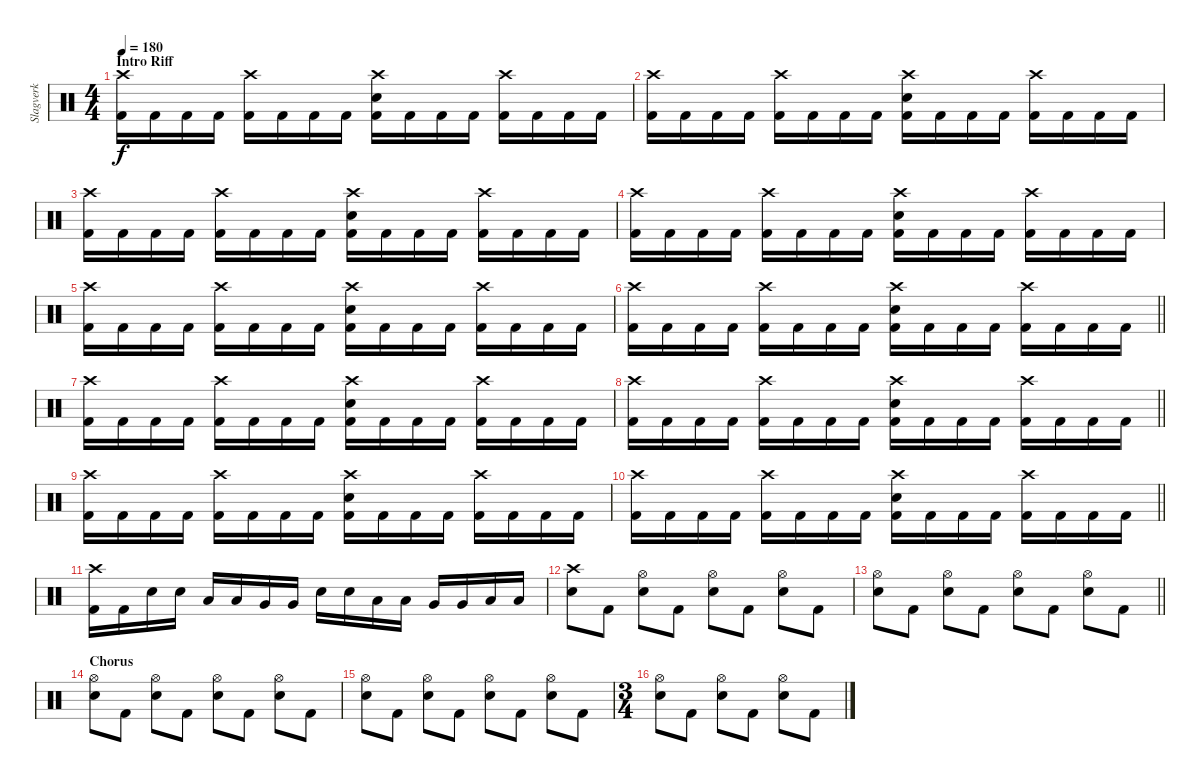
\track ("Slagverk" "Slagverk") {instrument percussion}
\staff {score}
\articulation defaults
\ts (4 4)
\section ("" "Intro Riff")
\tempo 180
\clef neutral
\ks c
("Crash high (hit)" "Kick (hit) 2").16{dy f} "Kick (hit) 2".16 "Kick (hit) 2".16 "Kick (hit) 2".16 ("Crash high (hit)" "Kick (hit) 2").16 "Kick (hit) 2".16 "Kick (hit) 2".16 "Kick (hit) 2".16 ("Crash high (hit)" "Electric Snare (hit)" "Kick (hit) 2").16 "Kick (hit) 2".16 "Kick (hit) 2".16 "Kick (hit) 2".16 ("Crash high (hit)" "Kick (hit) 2").16 "Kick (hit) 2".16 "Kick (hit) 2".16 "Kick (hit) 2".16 |
("Crash high (hit)" "Kick (hit) 2").16 "Kick (hit) 2".16 "Kick (hit) 2".16 "Kick (hit) 2".16 ("Crash high (hit)" "Kick (hit) 2").16 "Kick (hit) 2".16 "Kick (hit) 2".16 "Kick (hit) 2".16 ("Crash high (hit)" "Electric Snare (hit)" "Kick (hit) 2").16 "Kick (hit) 2".16 "Kick (hit) 2".16 "Kick (hit) 2".16 ("Crash high (hit)" "Kick (hit) 2").16 "Kick (hit) 2".16 "Kick (hit) 2".16 "Kick (hit) 2".16 |
("Crash high (hit)" "Kick (hit) 2").16 "Kick (hit) 2".16 "Kick (hit) 2".16 "Kick (hit) 2".16 ("Crash high (hit)" "Kick (hit) 2").16 "Kick (hit) 2".16 "Kick (hit) 2".16 "Kick (hit) 2".16 ("Crash high (hit)" "Electric Snare (hit)" "Kick (hit) 2").16 "Kick (hit) 2".16 "Kick (hit) 2".16 "Kick (hit) 2".16 ("Crash high (hit)" "Kick (hit) 2").16 "Kick (hit) 2".16 "Kick (hit) 2".16 "Kick (hit) 2".16 |
("Crash high (hit)" "Kick (hit) 2").16 "Kick (hit) 2".16 "Kick (hit) 2".16 "Kick (hit) 2".16 ("Crash high (hit)" "Kick (hit) 2").16 "Kick (hit) 2".16 "Kick (hit) 2".16 "Kick (hit) 2".16 ("Crash high (hit)" "Electric Snare (hit)" "Kick (hit) 2").16 "Kick (hit) 2".16 "Kick (hit) 2".16 "Kick (hit) 2".16 ("Crash high (hit)" "Kick (hit) 2").16 "Kick (hit) 2".16 "Kick (hit) 2".16 "Kick (hit) 2".16 |
("Crash high (hit)" "Kick (hit) 2").16 "Kick (hit) 2".16 "Kick (hit) 2".16 "Kick (hit) 2".16 ("Crash high (hit)" "Kick (hit) 2").16 "Kick (hit) 2".16 "Kick (hit) 2".16 "Kick (hit) 2".16 ("Crash high (hit)" "Electric Snare (hit)" "Kick (hit) 2").16 "Kick (hit) 2".16 "Kick (hit) 2".16 "Kick (hit) 2".16 ("Crash high (hit)" "Kick (hit) 2").16 "Kick (hit) 2".16 "Kick (hit) 2".16 "Kick (hit) 2".16 |
\barLineRight lightlight
("Crash high (hit)" "Kick (hit) 2").16 "Kick (hit) 2".16 "Kick (hit) 2".16 "Kick (hit) 2".16 ("Crash high (hit)" "Kick (hit) 2").16 "Kick (hit) 2".16 "Kick (hit) 2".16 "Kick (hit) 2".16 ("Crash high (hit)" "Electric Snare (hit)" "Kick (hit) 2").16 "Kick (hit) 2".16 "Kick (hit) 2".16 "Kick (hit) 2".16 ("Crash high (hit)" "Kick (hit) 2").16 "Kick (hit) 2".16 "Kick (hit) 2".16 "Kick (hit) 2".16 |
("Crash high (hit)" "Kick (hit) 2").16 "Kick (hit) 2".16 "Kick (hit) 2".16 "Kick (hit) 2".16 ("Crash high (hit)" "Kick (hit) 2").16 "Kick (hit) 2".16 "Kick (hit) 2".16 "Kick (hit) 2".16 ("Crash high (hit)" "Electric Snare (hit)" "Kick (hit) 2").16 "Kick (hit) 2".16 "Kick (hit) 2".16 "Kick (hit) 2".16 ("Crash high (hit)" "Kick (hit) 2").16 "Kick (hit) 2".16 "Kick (hit) 2".16 "Kick (hit) 2".16 |
\barLineRight lightlight
("Crash high (hit)" "Kick (hit) 2").16 "Kick (hit) 2".16 "Kick (hit) 2".16 "Kick (hit) 2".16 ("Crash high (hit)" "Kick (hit) 2").16 "Kick (hit) 2".16 "Kick (hit) 2".16 "Kick (hit) 2".16 ("Crash high (hit)" "Electric Snare (hit)" "Kick (hit) 2").16 "Kick (hit) 2".16 "Kick (hit) 2".16 "Kick (hit) 2".16 ("Crash high (hit)" "Kick (hit) 2").16 "Kick (hit) 2".16 "Kick (hit) 2".16 "Kick (hit) 2".16 |
("Crash high (hit)" "Kick (hit) 2").16 "Kick (hit) 2".16 "Kick (hit) 2".16 "Kick (hit) 2".16 ("Crash high (hit)" "Kick (hit) 2").16 "Kick (hit) 2".16 "Kick (hit) 2".16 "Kick (hit) 2".16 ("Crash high (hit)" "Electric Snare (hit)" "Kick (hit) 2").16 "Kick (hit) 2".16 "Kick (hit) 2".16 "Kick (hit) 2".16 ("Crash high (hit)" "Kick (hit) 2").16 "Kick (hit) 2".16 "Kick (hit) 2".16 "Kick (hit) 2".16 |
\barLineRight lightlight
("Crash high (hit)" "Kick (hit) 2").16 "Kick (hit) 2".16 "Kick (hit) 2".16 "Kick (hit) 2".16 ("Crash high (hit)" "Kick (hit) 2").16 "Kick (hit) 2".16 "Kick (hit) 2".16 "Kick (hit) 2".16 ("Crash high (hit)" "Electric Snare (hit)" "Kick (hit) 2").16 "Kick (hit) 2".16 "Kick (hit) 2".16 "Kick (hit) 2".16 ("Crash high (hit)" "Kick (hit) 2").16 "Kick (hit) 2".16 "Kick (hit) 2".16 "Kick (hit) 2".16 |
("Crash high (hit)" "Kick (hit) 2").16 "Kick (hit) 2".16 "Electric Snare (hit)".16 "Electric Snare (hit)".16 "Low Tom (hit)".16 "Low Tom (hit)".16 "Very Low Tom (hit)".16 "Very Low Tom (hit)".16 "Electric Snare (hit)".16 "Electric Snare (hit)".16 "Low Tom (hit)".16 "Low Tom (hit)".16 "Very Low Tom (hit)".16 "Very Low Tom (hit)".16 "Low Floor Tom (hit)".16 "Low Floor Tom (hit)".16 |
("Crash high (hit)" "Electric Snare (hit)").8 "Kick (hit) 2".8 ("Hi-Hat (open)" "Electric Snare (hit)").8 "Kick (hit) 2".8 ("Hi-Hat (open)" "Electric Snare (hit)").8 "Kick (hit) 2".8 ("Hi-Hat (open)" "Electric Snare (hit)").8 "Kick (hit) 2".8 |
\barLineRight lightlight
("Hi-Hat (open)" "Electric Snare (hit)").8 "Kick (hit) 2".8 ("Hi-Hat (open)" "Electric Snare (hit)").8 "Kick (hit) 2".8 ("Hi-Hat (open)" "Electric Snare (hit)").8 "Kick (hit) 2".8 ("Hi-Hat (open)" "Electric Snare (hit)").8 "Kick (hit) 2".8 |
\section ("" "Chorus")
("Hi-Hat (open)" "Electric Snare (hit)").8 "Kick (hit) 2".8 ("Hi-Hat (open)" "Electric Snare (hit)").8 "Kick (hit) 2".8 ("Hi-Hat (open)" "Electric Snare (hit)").8 "Kick (hit) 2".8 ("Hi-Hat (open)" "Electric Snare (hit)").8 "Kick (hit) 2".8 |
("Hi-Hat (open)" "Electric Snare (hit)").8 "Kick (hit) 2".8 ("Hi-Hat (open)" "Electric Snare (hit)").8 "Kick (hit) 2".8 ("Hi-Hat (open)" "Electric Snare (hit)").8 "Kick (hit) 2".8 ("Hi-Hat (open)" "Electric Snare (hit)").8 "Kick (hit) 2".8 |
\ts (3 4)
("Hi-Hat (open)" "Electric Snare (hit)").8 "Kick (hit) 2".8 ("Hi-Hat (open)" "Electric Snare (hit)").8 "Kick (hit) 2".8 ("Hi-Hat (open)" "Electric Snare (hit)").8 "Kick (hit) 2".8
